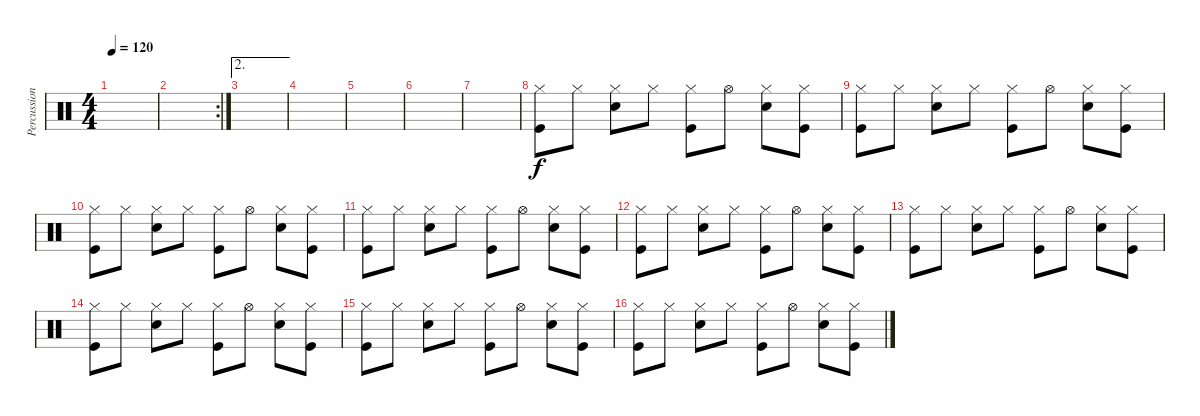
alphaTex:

\track ("Percussions" "Percussion") {instrument percussion}
\staff {score}
\articulation defaults
\ts (4 4)
\tempo 120
\clef neutral
\ks c
|
\rc 2
|
\ae 2
|
|
|
|
|
("Kick (hit)" "Hi-Hat (closed)").8 "Hi-Hat (closed)".8 ("Snare (hit) 2" "Hi-Hat (closed)").8 "Hi-Hat (closed)".8 ("Kick (hit)" "Hi-Hat (closed)").8 "Hi-Hat (open)".8 ("Snare (hit) 2" "Hi-Hat (closed)").8 ("Kick (hit)" "Hi-Hat (closed)").8 |
("Kick (hit)" "Hi-Hat (closed)").8 "Hi-Hat (closed)".8 ("Snare (hit) 2" "Hi-Hat (closed)").8 "Hi-Hat (closed)".8 ("Kick (hit)" "Hi-Hat (closed)").8 "Hi-Hat (open)".8 ("Snare (hit) 2" "Hi-Hat (closed)").8 ("Kick (hit)" "Hi-Hat (closed)").8 |
("Kick (hit)" "Hi-Hat (closed)").8 "Hi-Hat (closed)".8 ("Snare (hit) 2" "Hi-Hat (closed)").8 "Hi-Hat (closed)".8 ("Kick (hit)" "Hi-Hat (closed)").8 "Hi-Hat (open)".8 ("Snare (hit) 2" "Hi-Hat (closed)").8 ("Kick (hit)" "Hi-Hat (closed)").8 |
("Kick (hit)" "Hi-Hat (closed)").8 "Hi-Hat (closed)".8 ("Snare (hit) 2" "Hi-Hat (closed)").8 "Hi-Hat (closed)".8 ("Kick (hit)" "Hi-Hat (closed)").8 "Hi-Hat (open)".8 ("Snare (hit) 2" "Hi-Hat (closed)").8 ("Kick (hit)" "Hi-Hat (closed)").8 |
("Kick (hit)" "Hi-Hat (closed)").8 "Hi-Hat (closed)".8 ("Snare (hit) 2" "Hi-Hat (closed)").8 "Hi-Hat (closed)".8 ("Kick (hit)" "Hi-Hat (closed)").8 "Hi-Hat (open)".8 ("Snare (hit) 2" "Hi-Hat (closed)").8 ("Kick (hit)" "Hi-Hat (closed)").8 |
("Kick (hit)" "Hi-Hat (closed)").8 "Hi-Hat (closed)".8 ("Snare (hit) 2" "Hi-Hat (closed)").8 "Hi-Hat (closed)".8 ("Kick (hit)" "Hi-Hat (closed)").8 "Hi-Hat (open)".8 ("Snare (hit) 2" "Hi-Hat (closed)").8 ("Kick (hit)" "Hi-Hat (closed)").8 |
("Kick (hit)" "Hi-Hat (closed)").8 "Hi-Hat (closed)".8 ("Snare (hit) 2" "Hi-Hat (closed)").8 "Hi-Hat (closed)".8 ("Kick (hit)" "Hi-Hat (closed)").8 "Hi-Hat (open)".8 ("Snare (hit) 2" "Hi-Hat (closed)").8 ("Kick (hit)" "Hi-Hat (closed)").8 |
("Kick (hit)" "Hi-Hat (closed)").8 "Hi-Hat (closed)".8 ("Snare (hit) 2" "Hi-Hat (closed)").8 "Hi-Hat (closed)".8 ("Kick (hit)" "Hi-Hat (closed)").8 "Hi-Hat (open)".8 ("Snare (hit) 2" "Hi-Hat (closed)").8 ("Kick (hit)" "Hi-Hat (closed)").8 |
("Kick (hit)" "Hi-Hat (closed)").8 "Hi-Hat (closed)".8 ("Snare (hit) 2" "Hi-Hat (closed)").8 "Hi-Hat (closed)".8 ("Kick (hit)" "Hi-Hat (closed)").8 "Hi-Hat (open)".8 ("Snare (hit) 2" "Hi-Hat (closed)").8 ("Kick (hit)" "Hi-Hat (closed)").8
